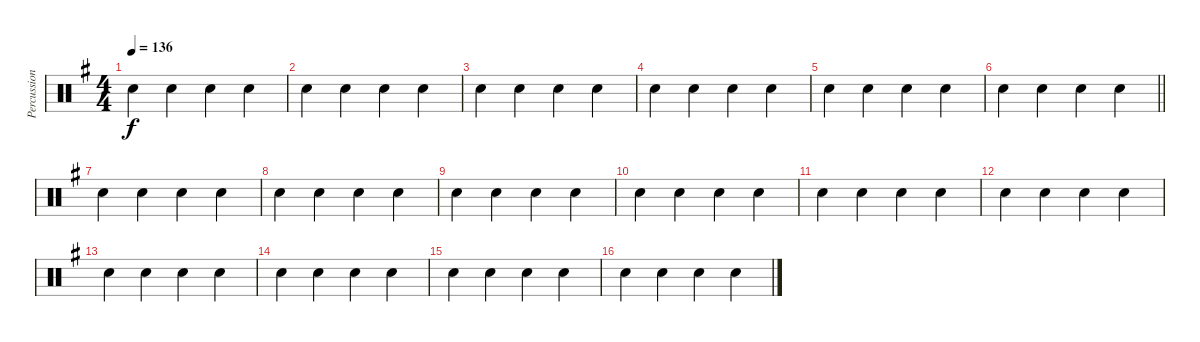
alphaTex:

\track ("Percussions" "Percussion") {instrument percussion}
\staff {score}
\articulation defaults
\ts (4 4)
\tempo 136
\clef neutral
\ks g "Hand Clap (hit)".4{dy f} "Hand Clap (hit)".4 "Hand Clap (hit)".4 "Hand Clap (hit)".4
|
"Hand Clap (hit)".4 "Hand Clap (hit)".4 "Hand Clap (hit)".4 "Hand Clap (hit)".4 |
"Hand Clap (hit)".4 "Hand Clap (hit)".4 "Hand Clap (hit)".4 "Hand Clap (hit)".4 |
"Hand Clap (hit)".4 "Hand Clap (hit)".4 "Hand Clap (hit)".4 "Hand Clap (hit)".4 |
"Hand Clap (hit)".4 "Hand Clap (hit)".4 "Hand Clap (hit)".4 "Hand Clap (hit)".4 |
\barLineRight lightlight "Hand Clap (hit)".4 "Hand Clap (hit)".4 "Hand Clap (hit)".4 "Hand Clap (hit)".4
|
"Hand Clap (hit)".4 "Hand Clap (hit)".4 "Hand Clap (hit)".4 "Hand Clap (hit)".4 |
"Hand Clap (hit)".4 "Hand Clap (hit)".4 "Hand Clap (hit)".4 "Hand Clap (hit)".4 |
"Hand Clap (hit)".4 "Hand Clap (hit)".4 "Hand Clap (hit)".4 "Hand Clap (hit)".4 |
"Hand Clap (hit)".4 "Hand Clap (hit)".4 "Hand Clap (hit)".4 "Hand Clap (hit)".4 |
"Hand Clap (hit)".4 "Hand Clap (hit)".4 "Hand Clap (hit)".4 "Hand Clap (hit)".4 |
"Hand Clap (hit)".4 "Hand Clap (hit)".4 "Hand Clap (hit)".4 "Hand Clap (hit)".4 |
"Hand Clap (hit)".4 "Hand Clap (hit)".4 "Hand Clap (hit)".4 "Hand Clap (hit)".4 |
"Hand Clap (hit)".4 "Hand Clap (hit)".4 "Hand Clap (hit)".4 "Hand Clap (hit)".4 |
"Hand Clap (hit)".4 "Hand Clap (hit)".4 "Hand Clap (hit)".4 "Hand Clap (hit)".4 |
"Hand Clap (hit)".4 "Hand Clap (hit)".4 "Hand Clap (hit)".4 "Hand Clap (hit)".4
